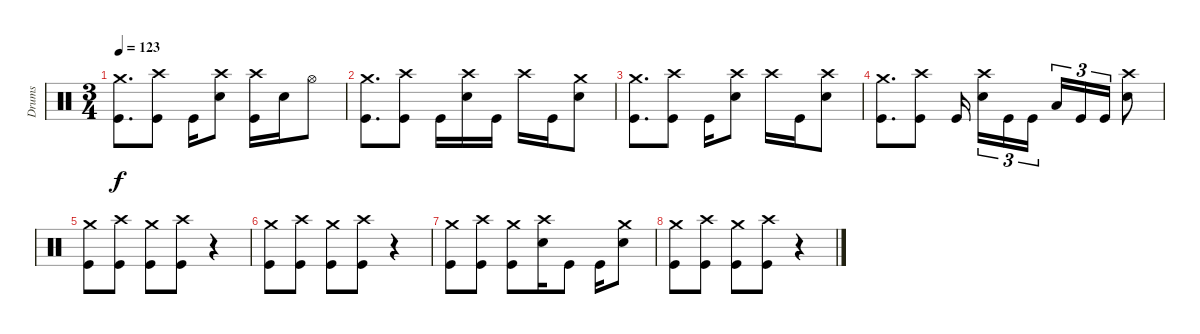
\track ("Drums" "Drums") {instrument percussion}
\staff {score}
\articulation defaults
\ts (3 4)
\tempo 123
\clef neutral
\ks c
("Crash medium (hit)" "Kick (hit)").8{d dy f} ("Crash high (hit)" "Kick (hit)").8 "Kick (hit)".16 ("Crash high (hit)" "Snare (hit) 2").8 ("Crash high (hit)" "Kick (hit)").16 "Snare (hit) 2".16 "Hi-Hat (open)".8 |
("Crash medium (hit)" "Kick (hit)").8{d} ("Crash high (hit)" "Kick (hit)").8 "Kick (hit)".16 ("Crash high (hit)" "Snare (hit) 2").16 "Kick (hit)".16 "Crash high (hit)".16 "Kick (hit)".16 ("Crash medium (hit)" "Snare (hit) 2").8 |
("Crash medium (hit)" "Kick (hit)").8{d} ("Crash high (hit)" "Kick (hit)").8 "Kick (hit)".16 ("Crash high (hit)" "Snare (hit) 2").8 "Crash high (hit)".16 "Kick (hit)".16 ("Crash high (hit)" "Snare (hit) 2").8 |
("Crash medium (hit)" "Kick (hit)").8{d} ("Crash high (hit)" "Kick (hit)").8 "Kick (hit)".16{beam splitsecondary} ("Crash high (hit)" "Snare (hit) 2").16{tu (3 2)} "Kick (hit)".16{tu (3 2)} "Kick (hit)".16{tu (3 2)} "Low Tom (hit)".16{tu (3 2)} "Kick (hit)".16{tu (3 2)} "Kick (hit)".16{tu (3 2)} ("Crash high (hit)" "Snare (hit) 2").8 |
("Crash medium (hit)" "Kick (hit)").8 ("Crash high (hit)" "Kick (hit)").8 ("Crash medium (hit)" "Kick (hit)").8 ("Crash high (hit)" "Kick (hit)").8 r.4 |
("Crash medium (hit)" "Kick (hit)").8 ("Crash high (hit)" "Kick (hit)").8 ("Crash medium (hit)" "Kick (hit)").8 ("Crash high (hit)" "Kick (hit)").8 r.4 |
("Crash medium (hit)" "Kick (hit)").8 ("Crash high (hit)" "Kick (hit)").8 ("Crash medium (hit)" "Kick (hit)").8 ("Crash high (hit)" "Snare (hit) 2").16 "Kick (hit)".8 "Kick (hit)".16 ("Crash medium (hit)" "Snare (hit) 2").8 |
("Crash medium (hit)" "Kick (hit)").8 ("Crash high (hit)" "Kick (hit)").8 ("Crash medium (hit)" "Kick (hit)").8 ("Crash high (hit)" "Kick (hit)").8 r.4
